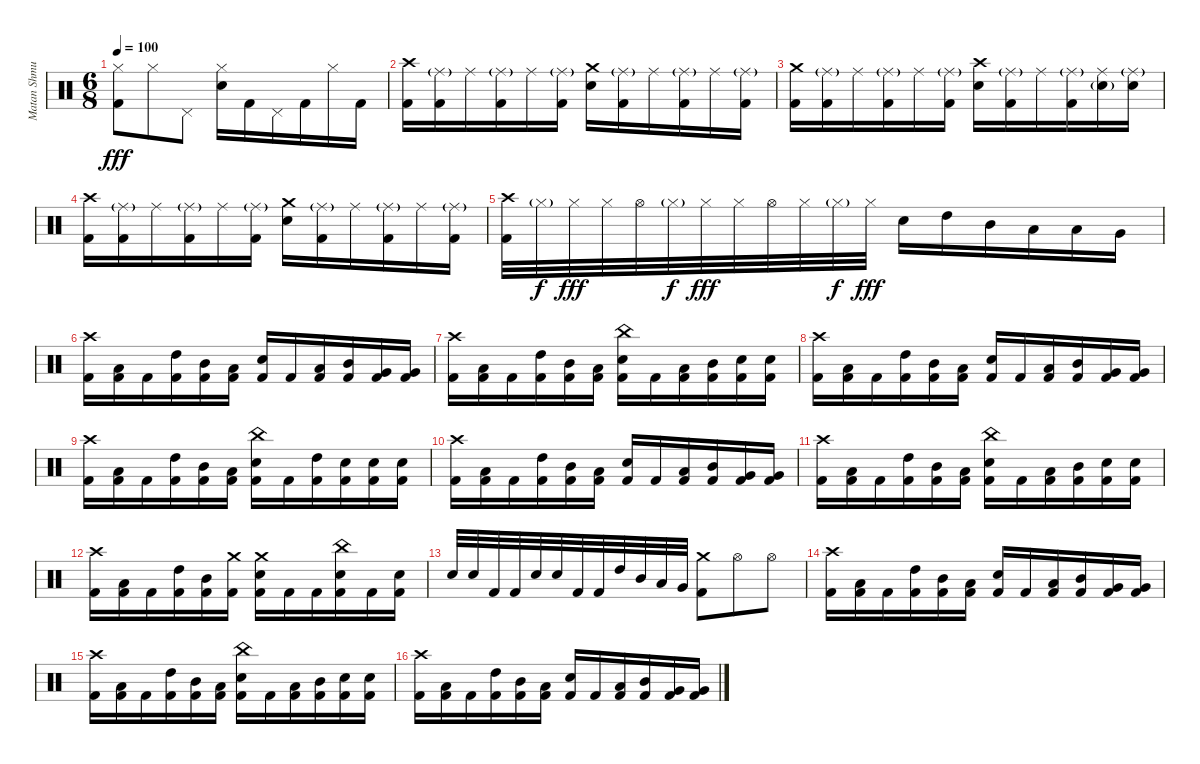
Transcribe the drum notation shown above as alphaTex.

\track ("Matan Shmuely" "Matan Shmu") {instrument percussion}
\staff {score}
\articulation defaults
\ts (6 8)
\tempo 100
\clef neutral
\ks c
("Kick (hit) 2" "Hi-Hat (closed)").8{dy fff} "Hi-Hat (closed)".8 "Pedal Hi-Hat (hit)".8 ("Electric Snare (hit)" "Hi-Hat (closed)").16 "Kick (hit) 2".16 "Pedal Hi-Hat (hit)".16 "Kick (hit) 2".16 "Hi-Hat (closed)".16 "Kick (hit) 2".16 |
("Kick (hit) 2" "Crash high (hit)").16 ("Kick (hit) 2" "Ride (middle)"{g}).16 "Ride (middle)".16 ("Kick (hit) 2" "Ride (middle)"{g}).16 "Ride (middle)".16 ("Kick (hit) 2" "Ride (middle)"{g}).16 ("Electric Snare (hit)" "Crash medium (hit)").16 ("Kick (hit) 2" "Ride (middle)"{g}).16 "Ride (middle)".16 ("Kick (hit) 2" "Ride (middle)"{g}).16 "Ride (middle)".16 ("Kick (hit) 2" "Ride (middle)"{g}).16 |
("Kick (hit) 2" "Crash medium (hit)").16 ("Kick (hit) 2" "Ride (middle)"{g}).16 "Ride (middle)".16 ("Kick (hit) 2" "Ride (middle)"{g}).16 "Ride (middle)".16 ("Kick (hit) 2" "Ride (middle)"{g}).16 ("Electric Snare (hit)" "Crash high (hit)").16 ("Kick (hit) 2" "Ride (middle)"{g}).16 "Ride (middle)".16 ("Kick (hit) 2" "Ride (middle)"{g}).16 ("Electric Snare (hit)"{g} "Ride (middle)").16 ("Electric Snare (hit)" "Ride (middle)"{g}).16 |
("Kick (hit) 2" "Crash high (hit)").16 ("Kick (hit) 2" "Ride (middle)"{g}).16 "Ride (middle)".16 ("Kick (hit) 2" "Ride (middle)"{g}).16 "Ride (middle)".16 ("Kick (hit) 2" "Ride (middle)"{g}).16 ("Electric Snare (hit)" "Crash medium (hit)").16 ("Kick (hit) 2" "Ride (middle)"{g}).16 "Ride (middle)".16 ("Kick (hit) 2" "Ride (middle)"{g}).16 "Ride (middle)".16 ("Kick (hit) 2" "Ride (middle)"{g}).16 |
("Kick (hit) 2" "Crash high (hit)").32 "Hi-Hat (closed)"{g}.32{dy f} "Hi-Hat (closed)".32{dy fff} "Hi-Hat (closed)".32 "Hi-Hat (open)".32 "Hi-Hat (closed)"{g}.32{dy f} "Hi-Hat (closed)".32{dy fff} "Hi-Hat (closed)".32 "Hi-Hat (open)".32 "Hi-Hat (closed)".32 "Hi-Hat (closed)"{g}.32{dy f} "Hi-Hat (closed)".32{dy fff} "Electric Snare (hit)".16 "High Tom (hit)".16 "Mid Tom (hit)".16 "Low Tom (hit)".16 "Low Tom (hit)".16 "Very Low Tom (hit)".16 |
("Kick (hit) 2" "Crash high (hit)").16 ("Kick (hit) 2" "Low Tom (hit)").16 "Kick (hit) 2".16 ("Kick (hit) 2" "High Tom (hit)").16 ("Kick (hit) 2" "Mid Tom (hit)").16 ("Kick (hit) 2" "Low Tom (hit)").16 ("Kick (hit) 2" "Electric Snare (hit)").16 "Kick (hit) 2".16 ("Kick (hit) 2" "Low Tom (hit)").16 ("Kick (hit) 2" "Mid Tom (hit)").16 ("Kick (hit) 2" "Very Low Tom (hit)").16 ("Kick (hit) 2" "Very Low Tom (hit)").16 |
("Kick (hit) 2" "Crash high (hit)").16 ("Kick (hit) 2" "Low Tom (hit)").16 "Kick (hit) 2".16 ("Kick (hit) 2" "High Tom (hit)").16 ("Kick (hit) 2" "Mid Tom (hit)").16 ("Kick (hit) 2" "Low Tom (hit)").16 ("Kick (hit) 2" "Electric Snare (hit)" "China (hit)").16 "Kick (hit) 2".16 ("Kick (hit) 2" "Low Tom (hit)").16 ("Kick (hit) 2" "Mid Tom (hit)").16 ("Kick (hit) 2" "Electric Snare (hit)").16 ("Kick (hit) 2" "Electric Snare (hit)").16 |
("Kick (hit) 2" "Crash high (hit)").16 ("Kick (hit) 2" "Low Tom (hit)").16 "Kick (hit) 2".16 ("Kick (hit) 2" "High Tom (hit)").16 ("Kick (hit) 2" "Mid Tom (hit)").16 ("Kick (hit) 2" "Low Tom (hit)").16 ("Kick (hit) 2" "Electric Snare (hit)").16 "Kick (hit) 2".16 ("Kick (hit) 2" "Low Tom (hit)").16 ("Kick (hit) 2" "Mid Tom (hit)").16 ("Kick (hit) 2" "Very Low Tom (hit)").16 ("Kick (hit) 2" "Very Low Tom (hit)").16 |
("Kick (hit) 2" "Crash high (hit)").16 ("Kick (hit) 2" "Low Tom (hit)").16 "Kick (hit) 2".16 ("Kick (hit) 2" "High Tom (hit)").16 ("Kick (hit) 2" "Mid Tom (hit)").16 ("Kick (hit) 2" "Low Tom (hit)").16 ("Kick (hit) 2" "Electric Snare (hit)" "China (hit)").16 "Kick (hit) 2".16 ("Kick (hit) 2" "High Tom (hit)").16 ("Kick (hit) 2" "Electric Snare (hit)").16 ("Kick (hit) 2" "Electric Snare (hit)").16 ("Kick (hit) 2" "Electric Snare (hit)").16 |
("Kick (hit) 2" "Crash high (hit)").16 ("Kick (hit) 2" "Low Tom (hit)").16 "Kick (hit) 2".16 ("Kick (hit) 2" "High Tom (hit)").16 ("Kick (hit) 2" "Mid Tom (hit)").16 ("Kick (hit) 2" "Low Tom (hit)").16 ("Kick (hit) 2" "Electric Snare (hit)").16 "Kick (hit) 2".16 ("Kick (hit) 2" "Low Tom (hit)").16 ("Kick (hit) 2" "Mid Tom (hit)").16 ("Kick (hit) 2" "Very Low Tom (hit)").16 ("Kick (hit) 2" "Very Low Tom (hit)").16 |
("Kick (hit) 2" "Crash high (hit)").16 ("Kick (hit) 2" "Low Tom (hit)").16 "Kick (hit) 2".16 ("Kick (hit) 2" "High Tom (hit)").16 ("Kick (hit) 2" "Mid Tom (hit)").16 ("Kick (hit) 2" "Low Tom (hit)").16 ("Kick (hit) 2" "Electric Snare (hit)" "China (hit)").16 "Kick (hit) 2".16 ("Kick (hit) 2" "Low Tom (hit)").16 ("Kick (hit) 2" "Mid Tom (hit)").16 ("Kick (hit) 2" "Electric Snare (hit)").16 ("Kick (hit) 2" "Electric Snare (hit)").16 |
("Kick (hit) 2" "Crash high (hit)").16 ("Kick (hit) 2" "Low Tom (hit)").16 "Kick (hit) 2".16 ("Kick (hit) 2" "High Tom (hit)").16 ("Kick (hit) 2" "Mid Tom (hit)").16 ("Kick (hit) 2" "Crash medium (hit)").16 ("Kick (hit) 2" "Electric Snare (hit)" "Crash medium (hit)").16 "Kick (hit) 2".16 "Kick (hit) 2".16 ("Kick (hit) 2" "Electric Snare (hit)" "China (hit)").16 "Kick (hit) 2".16 ("Kick (hit) 2" "Electric Snare (hit)").16 |
"Electric Snare (hit)".32 "Electric Snare (hit)".32 "Kick (hit) 2".32 "Kick (hit) 2".32 "Electric Snare (hit)".32 "Electric Snare (hit)".32 "Kick (hit) 2".32 "Kick (hit) 2".32 "High Tom (hit)".32 "Mid Tom (hit)".32 "Low Tom (hit)".32 "Very Low Tom (hit)".32 ("Kick (hit) 2" "Crash medium (hit)").8 "Hi-Hat (open)".8 "Hi-Hat (open)".8 |
("Kick (hit) 2" "Crash high (hit)").16 ("Kick (hit) 2" "Low Tom (hit)").16 "Kick (hit) 2".16 ("Kick (hit) 2" "High Tom (hit)").16 ("Kick (hit) 2" "Mid Tom (hit)").16 ("Kick (hit) 2" "Low Tom (hit)").16 ("Kick (hit) 2" "Electric Snare (hit)").16 "Kick (hit) 2".16 ("Kick (hit) 2" "Low Tom (hit)").16 ("Kick (hit) 2" "Mid Tom (hit)").16 ("Kick (hit) 2" "Very Low Tom (hit)").16 ("Kick (hit) 2" "Very Low Tom (hit)").16 |
("Kick (hit) 2" "Crash high (hit)").16 ("Kick (hit) 2" "Low Tom (hit)").16 "Kick (hit) 2".16 ("Kick (hit) 2" "High Tom (hit)").16 ("Kick (hit) 2" "Mid Tom (hit)").16 ("Kick (hit) 2" "Low Tom (hit)").16 ("Kick (hit) 2" "Electric Snare (hit)" "China (hit)").16 "Kick (hit) 2".16 ("Kick (hit) 2" "Low Tom (hit)").16 ("Kick (hit) 2" "Mid Tom (hit)").16 ("Kick (hit) 2" "Electric Snare (hit)").16 ("Kick (hit) 2" "Electric Snare (hit)").16 |
("Kick (hit) 2" "Crash high (hit)").16 ("Kick (hit) 2" "Low Tom (hit)").16 "Kick (hit) 2".16 ("Kick (hit) 2" "High Tom (hit)").16 ("Kick (hit) 2" "Mid Tom (hit)").16 ("Kick (hit) 2" "Low Tom (hit)").16 ("Kick (hit) 2" "Electric Snare (hit)").16 "Kick (hit) 2".16 ("Kick (hit) 2" "Low Tom (hit)").16 ("Kick (hit) 2" "Mid Tom (hit)").16 ("Kick (hit) 2" "Very Low Tom (hit)").16 ("Kick (hit) 2" "Very Low Tom (hit)").16
